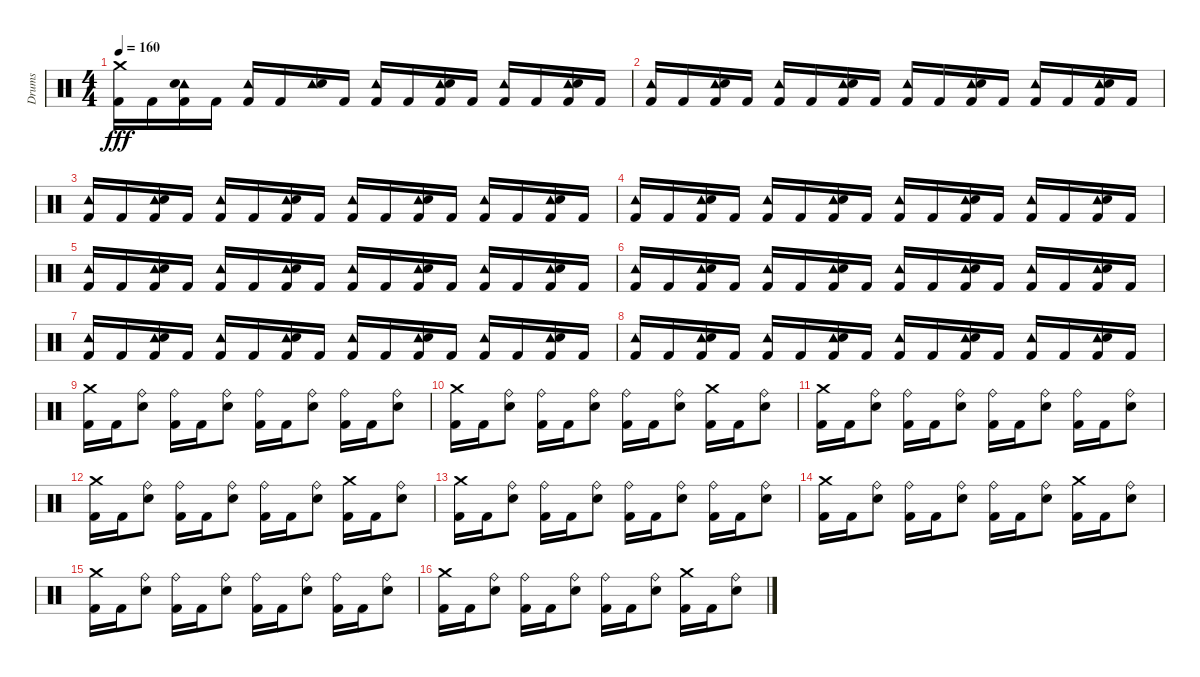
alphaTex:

\track ("Drums" "Drums") {instrument percussion}
\staff {score}
\articulation defaults
\ts (4 4)
\tempo 160
\clef neutral
\ks c
("Crash medium (hit)" "Kick (hit) 2").16{dy fff} "Kick (hit) 2".16 ("Kick (hit) 2" "Tambourine (hit)" "Electric Snare (hit)").16 "Kick (hit) 2".16 ("Kick (hit) 2" "Tambourine (hit)").16 "Kick (hit) 2".16 ("Tambourine (hit)" "Electric Snare (hit)").16 "Kick (hit) 2".16 ("Kick (hit) 2" "Tambourine (hit)").16 "Kick (hit) 2".16 ("Kick (hit) 2" "Tambourine (hit)" "Electric Snare (hit)").16 "Kick (hit) 2".16 ("Kick (hit) 2" "Tambourine (hit)").16 "Kick (hit) 2".16 ("Kick (hit) 2" "Tambourine (hit)" "Electric Snare (hit)").16 "Kick (hit) 2".16 |
("Kick (hit) 2" "Tambourine (hit)").16 "Kick (hit) 2".16 ("Kick (hit) 2" "Tambourine (hit)" "Electric Snare (hit)").16 "Kick (hit) 2".16 ("Kick (hit) 2" "Tambourine (hit)").16 "Kick (hit) 2".16 ("Kick (hit) 2" "Tambourine (hit)" "Electric Snare (hit)").16 "Kick (hit) 2".16 ("Kick (hit) 2" "Tambourine (hit)").16 "Kick (hit) 2".16 ("Kick (hit) 2" "Tambourine (hit)" "Electric Snare (hit)").16 "Kick (hit) 2".16 ("Kick (hit) 2" "Tambourine (hit)").16 "Kick (hit) 2".16 ("Kick (hit) 2" "Tambourine (hit)" "Electric Snare (hit)").16 "Kick (hit) 2".16 |
("Kick (hit) 2" "Tambourine (hit)").16 "Kick (hit) 2".16 ("Kick (hit) 2" "Tambourine (hit)" "Electric Snare (hit)").16 "Kick (hit) 2".16 ("Kick (hit) 2" "Tambourine (hit)").16 "Kick (hit) 2".16 ("Kick (hit) 2" "Tambourine (hit)" "Electric Snare (hit)").16 "Kick (hit) 2".16 ("Kick (hit) 2" "Tambourine (hit)").16 "Kick (hit) 2".16 ("Kick (hit) 2" "Tambourine (hit)" "Electric Snare (hit)").16 "Kick (hit) 2".16 ("Kick (hit) 2" "Tambourine (hit)").16 "Kick (hit) 2".16 ("Kick (hit) 2" "Tambourine (hit)" "Electric Snare (hit)").16 "Kick (hit) 2".16 |
("Kick (hit) 2" "Tambourine (hit)").16 "Kick (hit) 2".16 ("Kick (hit) 2" "Tambourine (hit)" "Electric Snare (hit)").16 "Kick (hit) 2".16 ("Kick (hit) 2" "Tambourine (hit)").16 "Kick (hit) 2".16 ("Kick (hit) 2" "Tambourine (hit)" "Electric Snare (hit)").16 "Kick (hit) 2".16 ("Kick (hit) 2" "Tambourine (hit)").16 "Kick (hit) 2".16 ("Kick (hit) 2" "Tambourine (hit)" "Electric Snare (hit)").16 "Kick (hit) 2".16 ("Kick (hit) 2" "Tambourine (hit)").16 "Kick (hit) 2".16 ("Kick (hit) 2" "Tambourine (hit)" "Electric Snare (hit)").16 "Kick (hit) 2".16 |
("Kick (hit) 2" "Tambourine (hit)").16 "Kick (hit) 2".16 ("Kick (hit) 2" "Tambourine (hit)" "Electric Snare (hit)").16 "Kick (hit) 2".16 ("Kick (hit) 2" "Tambourine (hit)").16 "Kick (hit) 2".16 ("Kick (hit) 2" "Tambourine (hit)" "Electric Snare (hit)").16 "Kick (hit) 2".16 ("Kick (hit) 2" "Tambourine (hit)").16 "Kick (hit) 2".16 ("Kick (hit) 2" "Tambourine (hit)" "Electric Snare (hit)").16 "Kick (hit) 2".16 ("Kick (hit) 2" "Tambourine (hit)").16 "Kick (hit) 2".16 ("Kick (hit) 2" "Tambourine (hit)" "Electric Snare (hit)").16 "Kick (hit) 2".16 |
("Kick (hit) 2" "Tambourine (hit)").16 "Kick (hit) 2".16 ("Kick (hit) 2" "Tambourine (hit)" "Electric Snare (hit)").16 "Kick (hit) 2".16 ("Kick (hit) 2" "Tambourine (hit)").16 "Kick (hit) 2".16 ("Kick (hit) 2" "Tambourine (hit)" "Electric Snare (hit)").16 "Kick (hit) 2".16 ("Kick (hit) 2" "Tambourine (hit)").16 "Kick (hit) 2".16 ("Kick (hit) 2" "Tambourine (hit)" "Electric Snare (hit)").16 "Kick (hit) 2".16 ("Kick (hit) 2" "Tambourine (hit)").16 "Kick (hit) 2".16 ("Kick (hit) 2" "Tambourine (hit)" "Electric Snare (hit)").16 "Kick (hit) 2".16 |
("Kick (hit) 2" "Tambourine (hit)").16 "Kick (hit) 2".16 ("Kick (hit) 2" "Tambourine (hit)" "Electric Snare (hit)").16 "Kick (hit) 2".16 ("Kick (hit) 2" "Tambourine (hit)").16 "Kick (hit) 2".16 ("Kick (hit) 2" "Tambourine (hit)" "Electric Snare (hit)").16 "Kick (hit) 2".16 ("Kick (hit) 2" "Tambourine (hit)").16 "Kick (hit) 2".16 ("Kick (hit) 2" "Tambourine (hit)" "Electric Snare (hit)").16 "Kick (hit) 2".16 ("Kick (hit) 2" "Tambourine (hit)").16 "Kick (hit) 2".16 ("Kick (hit) 2" "Tambourine (hit)" "Electric Snare (hit)").16 "Kick (hit) 2".16 |
("Kick (hit) 2" "Tambourine (hit)").16 "Kick (hit) 2".16 ("Kick (hit) 2" "Tambourine (hit)" "Electric Snare (hit)").16 "Kick (hit) 2".16 ("Kick (hit) 2" "Tambourine (hit)").16 "Kick (hit) 2".16 ("Kick (hit) 2" "Tambourine (hit)" "Electric Snare (hit)").16 "Kick (hit) 2".16 ("Kick (hit) 2" "Tambourine (hit)").16 "Kick (hit) 2".16 ("Kick (hit) 2" "Tambourine (hit)" "Electric Snare (hit)").16 "Kick (hit) 2".16 ("Kick (hit) 2" "Tambourine (hit)").16 "Kick (hit) 2".16 ("Kick (hit) 2" "Tambourine (hit)" "Electric Snare (hit)").16 "Kick (hit) 2".16 |
("Kick (hit) 2" "Crash medium (hit)").16 "Kick (hit) 2".16 ("Ride (bell)" "Electric Snare (hit)").8 ("Kick (hit) 2" "Ride (bell)").16 "Kick (hit) 2".16 ("Ride (bell)" "Electric Snare (hit)").8 ("Kick (hit) 2" "Ride (bell)").16 "Kick (hit) 2".16 ("Ride (bell)" "Electric Snare (hit)").8 ("Kick (hit) 2" "Ride (bell)").16 "Kick (hit) 2".16 ("Ride (bell)" "Electric Snare (hit)").8 |
("Kick (hit) 2" "Crash medium (hit)").16 "Kick (hit) 2".16 ("Ride (bell)" "Electric Snare (hit)").8 ("Kick (hit) 2" "Ride (bell)").16 "Kick (hit) 2".16 ("Ride (bell)" "Electric Snare (hit)").8 ("Kick (hit) 2" "Ride (bell)").16 "Kick (hit) 2".16 ("Ride (bell)" "Electric Snare (hit)").8 ("Crash medium (hit)" "Kick (hit) 2").16 "Kick (hit) 2".16 ("Ride (bell)" "Electric Snare (hit)").8 |
("Kick (hit) 2" "Crash medium (hit)").16 "Kick (hit) 2".16 ("Ride (bell)" "Electric Snare (hit)").8 ("Kick (hit) 2" "Ride (bell)").16 "Kick (hit) 2".16 ("Ride (bell)" "Electric Snare (hit)").8 ("Kick (hit) 2" "Ride (bell)").16 "Kick (hit) 2".16 ("Ride (bell)" "Electric Snare (hit)").8 ("Kick (hit) 2" "Ride (bell)").16 "Kick (hit) 2".16 ("Ride (bell)" "Electric Snare (hit)").8 |
("Kick (hit) 2" "Crash medium (hit)").16 "Kick (hit) 2".16 ("Ride (bell)" "Electric Snare (hit)").8 ("Kick (hit) 2" "Ride (bell)").16 "Kick (hit) 2".16 ("Ride (bell)" "Electric Snare (hit)").8 ("Kick (hit) 2" "Ride (bell)").16 "Kick (hit) 2".16 ("Ride (bell)" "Electric Snare (hit)").8 ("Crash medium (hit)" "Kick (hit) 2").16 "Kick (hit) 2".16 ("Ride (bell)" "Electric Snare (hit)").8 |
("Kick (hit) 2" "Crash medium (hit)").16 "Kick (hit) 2".16 ("Ride (bell)" "Electric Snare (hit)").8 ("Kick (hit) 2" "Ride (bell)").16 "Kick (hit) 2".16 ("Ride (bell)" "Electric Snare (hit)").8 ("Kick (hit) 2" "Ride (bell)").16 "Kick (hit) 2".16 ("Ride (bell)" "Electric Snare (hit)").8 ("Kick (hit) 2" "Ride (bell)").16 "Kick (hit) 2".16 ("Ride (bell)" "Electric Snare (hit)").8 |
("Kick (hit) 2" "Crash medium (hit)").16 "Kick (hit) 2".16 ("Ride (bell)" "Electric Snare (hit)").8 ("Kick (hit) 2" "Ride (bell)").16 "Kick (hit) 2".16 ("Ride (bell)" "Electric Snare (hit)").8 ("Kick (hit) 2" "Ride (bell)").16 "Kick (hit) 2".16 ("Ride (bell)" "Electric Snare (hit)").8 ("Crash medium (hit)" "Kick (hit) 2").16 "Kick (hit) 2".16 ("Ride (bell)" "Electric Snare (hit)").8 |
("Kick (hit) 2" "Crash medium (hit)").16 "Kick (hit) 2".16 ("Ride (bell)" "Electric Snare (hit)").8 ("Kick (hit) 2" "Ride (bell)").16 "Kick (hit) 2".16 ("Ride (bell)" "Electric Snare (hit)").8 ("Kick (hit) 2" "Ride (bell)").16 "Kick (hit) 2".16 ("Ride (bell)" "Electric Snare (hit)").8 ("Kick (hit) 2" "Ride (bell)").16 "Kick (hit) 2".16 ("Ride (bell)" "Electric Snare (hit)").8 |
("Kick (hit) 2" "Crash medium (hit)").16 "Kick (hit) 2".16 ("Ride (bell)" "Electric Snare (hit)").8 ("Kick (hit) 2" "Ride (bell)").16 "Kick (hit) 2".16 ("Ride (bell)" "Electric Snare (hit)").8 ("Kick (hit) 2" "Ride (bell)").16 "Kick (hit) 2".16 ("Ride (bell)" "Electric Snare (hit)").8 ("Crash medium (hit)" "Kick (hit) 2").16 "Kick (hit) 2".16 ("Ride (bell)" "Electric Snare (hit)").8
